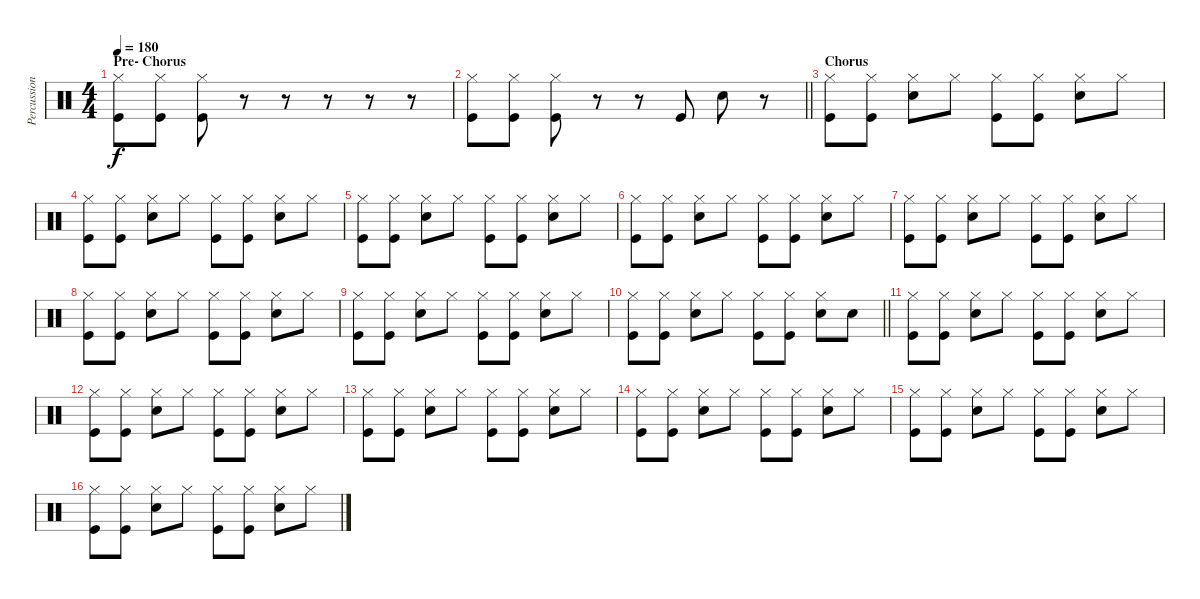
\track ("Percussion" "Percussion") {instrument percussion}
\staff {score}
\articulation defaults
\ts (4 4)
\section ("" "Pre- Chorus")
\tempo 180
\clef neutral
\ks c
("Hi-Hat (closed)" "Kick (hit)").8{dy f} ("Hi-Hat (closed)" "Kick (hit)").8 ("Hi-Hat (closed)" "Kick (hit)").8 r.8 r.8 r.8 r.8 r.8 |
\barLineRight lightlight
("Hi-Hat (closed)" "Kick (hit)").8 ("Hi-Hat (closed)" "Kick (hit)").8 ("Hi-Hat (closed)" "Kick (hit)").8 r.8 r.8 "Kick (hit)".8 "Snare (hit) 2".8 r.8 |
\section ("" "Chorus")
("Hi-Hat (closed)" "Kick (hit)").8 ("Hi-Hat (closed)" "Kick (hit)").8 ("Hi-Hat (closed)" "Snare (hit) 2").8 "Hi-Hat (closed)".8 ("Hi-Hat (closed)" "Kick (hit)").8 ("Hi-Hat (closed)" "Kick (hit)").8 ("Hi-Hat (closed)" "Snare (hit) 2").8 "Hi-Hat (closed)".8 |
("Hi-Hat (closed)" "Kick (hit)").8 ("Hi-Hat (closed)" "Kick (hit)").8 ("Hi-Hat (closed)" "Snare (hit) 2").8 "Hi-Hat (closed)".8 ("Hi-Hat (closed)" "Kick (hit)").8 ("Hi-Hat (closed)" "Kick (hit)").8 ("Hi-Hat (closed)" "Snare (hit) 2").8 "Hi-Hat (closed)".8 |
("Hi-Hat (closed)" "Kick (hit)").8 ("Hi-Hat (closed)" "Kick (hit)").8 ("Hi-Hat (closed)" "Snare (hit) 2").8 "Hi-Hat (closed)".8 ("Hi-Hat (closed)" "Kick (hit)").8 ("Hi-Hat (closed)" "Kick (hit)").8 ("Hi-Hat (closed)" "Snare (hit) 2").8 "Hi-Hat (closed)".8 |
("Hi-Hat (closed)" "Kick (hit)").8 ("Hi-Hat (closed)" "Kick (hit)").8 ("Hi-Hat (closed)" "Snare (hit) 2").8 "Hi-Hat (closed)".8 ("Hi-Hat (closed)" "Kick (hit)").8 ("Hi-Hat (closed)" "Kick (hit)").8 ("Hi-Hat (closed)" "Snare (hit) 2").8 "Hi-Hat (closed)".8 |
("Hi-Hat (closed)" "Kick (hit)").8 ("Hi-Hat (closed)" "Kick (hit)").8 ("Hi-Hat (closed)" "Snare (hit) 2").8 "Hi-Hat (closed)".8 ("Hi-Hat (closed)" "Kick (hit)").8 ("Hi-Hat (closed)" "Kick (hit)").8 ("Hi-Hat (closed)" "Snare (hit) 2").8 "Hi-Hat (closed)".8 |
("Hi-Hat (closed)" "Kick (hit)").8 ("Hi-Hat (closed)" "Kick (hit)").8 ("Hi-Hat (closed)" "Snare (hit) 2").8 "Hi-Hat (closed)".8 ("Hi-Hat (closed)" "Kick (hit)").8 ("Hi-Hat (closed)" "Kick (hit)").8 ("Hi-Hat (closed)" "Snare (hit) 2").8 "Hi-Hat (closed)".8 |
("Hi-Hat (closed)" "Kick (hit)").8 ("Hi-Hat (closed)" "Kick (hit)").8 ("Hi-Hat (closed)" "Snare (hit) 2").8 "Hi-Hat (closed)".8 ("Hi-Hat (closed)" "Kick (hit)").8 ("Hi-Hat (closed)" "Kick (hit)").8 ("Hi-Hat (closed)" "Snare (hit) 2").8 "Hi-Hat (closed)".8 |
\barLineRight lightlight
("Hi-Hat (closed)" "Kick (hit)").8 ("Hi-Hat (closed)" "Kick (hit)").8 ("Hi-Hat (closed)" "Snare (hit) 2").8 "Hi-Hat (closed)".8 ("Hi-Hat (closed)" "Kick (hit)").8 ("Hi-Hat (closed)" "Kick (hit)").8 ("Hi-Hat (closed)" "Snare (hit) 2").8 "Snare (hit)".8 |
("Hi-Hat (closed)" "Kick (hit)").8 ("Hi-Hat (closed)" "Kick (hit)").8 ("Hi-Hat (closed)" "Snare (hit) 2").8 "Hi-Hat (closed)".8 ("Hi-Hat (closed)" "Kick (hit)").8 ("Hi-Hat (closed)" "Kick (hit)").8 ("Hi-Hat (closed)" "Snare (hit) 2").8 "Hi-Hat (closed)".8 |
("Hi-Hat (closed)" "Kick (hit)").8 ("Hi-Hat (closed)" "Kick (hit)").8 ("Hi-Hat (closed)" "Snare (hit) 2").8 "Hi-Hat (closed)".8 ("Hi-Hat (closed)" "Kick (hit)").8 ("Hi-Hat (closed)" "Kick (hit)").8 ("Hi-Hat (closed)" "Snare (hit) 2").8 "Hi-Hat (closed)".8 |
("Hi-Hat (closed)" "Kick (hit)").8 ("Hi-Hat (closed)" "Kick (hit)").8 ("Hi-Hat (closed)" "Snare (hit) 2").8 "Hi-Hat (closed)".8 ("Hi-Hat (closed)" "Kick (hit)").8 ("Hi-Hat (closed)" "Kick (hit)").8 ("Hi-Hat (closed)" "Snare (hit) 2").8 "Hi-Hat (closed)".8 |
("Hi-Hat (closed)" "Kick (hit)").8 ("Hi-Hat (closed)" "Kick (hit)").8 ("Hi-Hat (closed)" "Snare (hit) 2").8 "Hi-Hat (closed)".8 ("Hi-Hat (closed)" "Kick (hit)").8 ("Hi-Hat (closed)" "Kick (hit)").8 ("Hi-Hat (closed)" "Snare (hit) 2").8 "Hi-Hat (closed)".8 |
("Hi-Hat (closed)" "Kick (hit)").8 ("Hi-Hat (closed)" "Kick (hit)").8 ("Hi-Hat (closed)" "Snare (hit) 2").8 "Hi-Hat (closed)".8 ("Hi-Hat (closed)" "Kick (hit)").8 ("Hi-Hat (closed)" "Kick (hit)").8 ("Hi-Hat (closed)" "Snare (hit) 2").8 "Hi-Hat (closed)".8 |
("Hi-Hat (closed)" "Kick (hit)").8 ("Hi-Hat (closed)" "Kick (hit)").8 ("Hi-Hat (closed)" "Snare (hit) 2").8 "Hi-Hat (closed)".8 ("Hi-Hat (closed)" "Kick (hit)").8 ("Hi-Hat (closed)" "Kick (hit)").8 ("Hi-Hat (closed)" "Snare (hit) 2").8 "Hi-Hat (closed)".8
